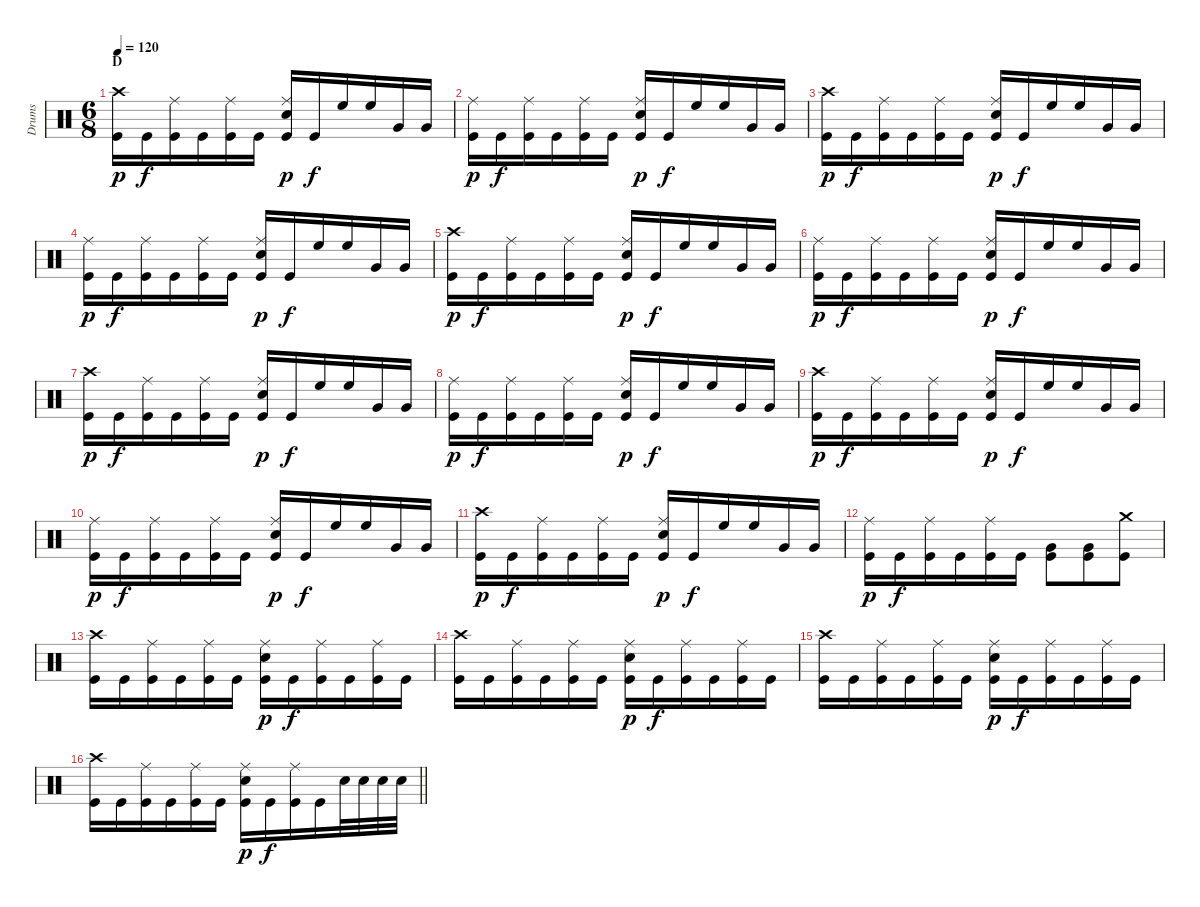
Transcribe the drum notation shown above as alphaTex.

\track ("Drums" "Drums") {instrument percussion}
\staff {score}
\articulation defaults
\ts (6 8)
\section ("" "D")
\tempo 120
\clef neutral
\ks c
("Kick (hit)" "Crash high (hit)").16{dy p} "Kick (hit)".16{dy f} ("Kick (hit)" "Ride (middle)").16 "Kick (hit)".16 ("Kick (hit)" "Ride (middle)").16 "Kick (hit)".16 ("Kick (hit)" "Electric Snare (hit)" "Ride (middle)").16{dy p} "Kick (hit)".16{dy f} "High Floor Tom (hit)".16 "High Floor Tom (hit)".16 "Very Low Tom (hit)".16 "Very Low Tom (hit)".16 |
("Kick (hit)" "Ride (middle)").16{dy p} "Kick (hit)".16{dy f} ("Kick (hit)" "Ride (middle)").16 "Kick (hit)".16 ("Kick (hit)" "Ride (middle)").16 "Kick (hit)".16 ("Kick (hit)" "Electric Snare (hit)" "Ride (middle)").16{dy p} "Kick (hit)".16{dy f} "High Floor Tom (hit)".16 "High Floor Tom (hit)".16 "Very Low Tom (hit)".16 "Very Low Tom (hit)".16 |
("Kick (hit)" "Crash high (hit)").16{dy p} "Kick (hit)".16{dy f} ("Kick (hit)" "Ride (middle)").16 "Kick (hit)".16 ("Kick (hit)" "Ride (middle)").16 "Kick (hit)".16 ("Kick (hit)" "Electric Snare (hit)" "Ride (middle)").16{dy p} "Kick (hit)".16{dy f} "High Floor Tom (hit)".16 "High Floor Tom (hit)".16 "Very Low Tom (hit)".16 "Very Low Tom (hit)".16 |
("Kick (hit)" "Ride (middle)").16{dy p} "Kick (hit)".16{dy f} ("Kick (hit)" "Ride (middle)").16 "Kick (hit)".16 ("Kick (hit)" "Ride (middle)").16 "Kick (hit)".16 ("Kick (hit)" "Electric Snare (hit)" "Ride (middle)").16{dy p} "Kick (hit)".16{dy f} "High Floor Tom (hit)".16 "High Floor Tom (hit)".16 "Very Low Tom (hit)".16 "Very Low Tom (hit)".16 |
("Kick (hit)" "Crash high (hit)").16{dy p} "Kick (hit)".16{dy f} ("Kick (hit)" "Ride (middle)").16 "Kick (hit)".16 ("Kick (hit)" "Ride (middle)").16 "Kick (hit)".16 ("Kick (hit)" "Electric Snare (hit)" "Ride (middle)").16{dy p} "Kick (hit)".16{dy f} "High Floor Tom (hit)".16 "High Floor Tom (hit)".16 "Very Low Tom (hit)".16 "Very Low Tom (hit)".16 |
("Kick (hit)" "Ride (middle)").16{dy p} "Kick (hit)".16{dy f} ("Kick (hit)" "Ride (middle)").16 "Kick (hit)".16 ("Kick (hit)" "Ride (middle)").16 "Kick (hit)".16 ("Kick (hit)" "Electric Snare (hit)" "Ride (middle)").16{dy p} "Kick (hit)".16{dy f} "High Floor Tom (hit)".16 "High Floor Tom (hit)".16 "Very Low Tom (hit)".16 "Very Low Tom (hit)".16 |
("Kick (hit)" "Crash high (hit)").16{dy p} "Kick (hit)".16{dy f} ("Kick (hit)" "Ride (middle)").16 "Kick (hit)".16 ("Kick (hit)" "Ride (middle)").16 "Kick (hit)".16 ("Kick (hit)" "Electric Snare (hit)" "Ride (middle)").16{dy p} "Kick (hit)".16{dy f} "High Floor Tom (hit)".16 "High Floor Tom (hit)".16 "Very Low Tom (hit)".16 "Very Low Tom (hit)".16 |
("Kick (hit)" "Ride (middle)").16{dy p} "Kick (hit)".16{dy f} ("Kick (hit)" "Ride (middle)").16 "Kick (hit)".16 ("Kick (hit)" "Ride (middle)").16 "Kick (hit)".16 ("Kick (hit)" "Electric Snare (hit)" "Ride (middle)").16{dy p} "Kick (hit)".16{dy f} "High Floor Tom (hit)".16 "High Floor Tom (hit)".16 "Very Low Tom (hit)".16 "Very Low Tom (hit)".16 |
("Kick (hit)" "Crash high (hit)").16{dy p} "Kick (hit)".16{dy f} ("Kick (hit)" "Ride (middle)").16 "Kick (hit)".16 ("Kick (hit)" "Ride (middle)").16 "Kick (hit)".16 ("Kick (hit)" "Electric Snare (hit)" "Ride (middle)").16{dy p} "Kick (hit)".16{dy f} "High Floor Tom (hit)".16 "High Floor Tom (hit)".16 "Very Low Tom (hit)".16 "Very Low Tom (hit)".16 |
("Kick (hit)" "Ride (middle)").16{dy p} "Kick (hit)".16{dy f} ("Kick (hit)" "Ride (middle)").16 "Kick (hit)".16 ("Kick (hit)" "Ride (middle)").16 "Kick (hit)".16 ("Kick (hit)" "Electric Snare (hit)" "Ride (middle)").16{dy p} "Kick (hit)".16{dy f} "High Floor Tom (hit)".16 "High Floor Tom (hit)".16 "Very Low Tom (hit)".16 "Very Low Tom (hit)".16 |
("Kick (hit)" "Crash high (hit)").16{dy p} "Kick (hit)".16{dy f} ("Kick (hit)" "Ride (middle)").16 "Kick (hit)".16 ("Kick (hit)" "Ride (middle)").16 "Kick (hit)".16 ("Kick (hit)" "Electric Snare (hit)" "Ride (middle)").16{dy p} "Kick (hit)".16{dy f} "High Floor Tom (hit)".16 "High Floor Tom (hit)".16 "Very Low Tom (hit)".16 "Very Low Tom (hit)".16 |
("Kick (hit)" "Ride (middle)").16{dy p} "Kick (hit)".16{dy f} ("Kick (hit)" "Ride (middle)").16 "Kick (hit)".16 ("Kick (hit)" "Ride (middle)").16 "Kick (hit)".16 ("Kick (hit)" "Very Low Tom (hit)").8 ("Kick (hit)" "Very Low Tom (hit)").8 ("Kick (hit)" "Crash medium (hit)").8 |
("Kick (hit)" "Crash high (hit)").16 "Kick (hit)".16 ("Kick (hit)" "Ride (middle)").16 "Kick (hit)".16 ("Kick (hit)" "Ride (middle)").16 "Kick (hit)".16 ("Kick (hit)" "Electric Snare (hit)" "Ride (middle)").16{dy p} "Kick (hit)".16{dy f} ("Kick (hit)" "Ride (middle)").16 "Kick (hit)".16 ("Kick (hit)" "Ride (middle)").16 "Kick (hit)".16 |
("Kick (hit)" "Crash high (hit)").16 "Kick (hit)".16 ("Kick (hit)" "Ride (middle)").16 "Kick (hit)".16 ("Kick (hit)" "Ride (middle)").16 "Kick (hit)".16 ("Kick (hit)" "Electric Snare (hit)" "Ride (middle)").16{dy p} "Kick (hit)".16{dy f} ("Kick (hit)" "Ride (middle)").16 "Kick (hit)".16 ("Kick (hit)" "Ride (middle)").16 "Kick (hit)".16 |
("Kick (hit)" "Crash high (hit)").16 "Kick (hit)".16 ("Kick (hit)" "Ride (middle)").16 "Kick (hit)".16 ("Kick (hit)" "Ride (middle)").16 "Kick (hit)".16 ("Kick (hit)" "Electric Snare (hit)" "Ride (middle)").16{dy p} "Kick (hit)".16{dy f} ("Kick (hit)" "Ride (middle)").16 "Kick (hit)".16 ("Kick (hit)" "Ride (middle)").16 "Kick (hit)".16 |
\barLineRight lightlight
("Kick (hit)" "Crash high (hit)").16 "Kick (hit)".16 ("Kick (hit)" "Ride (middle)").16 "Kick (hit)".16 ("Kick (hit)" "Ride (middle)").16 "Kick (hit)".16 ("Kick (hit)" "Electric Snare (hit)" "Ride (middle)").16{dy p} "Kick (hit)".16{dy f} ("Kick (hit)" "Ride (middle)").16 "Kick (hit)".16 "Electric Snare (hit)".32 "Electric Snare (hit)".32 "Electric Snare (hit)".32 "Electric Snare (hit)".32
